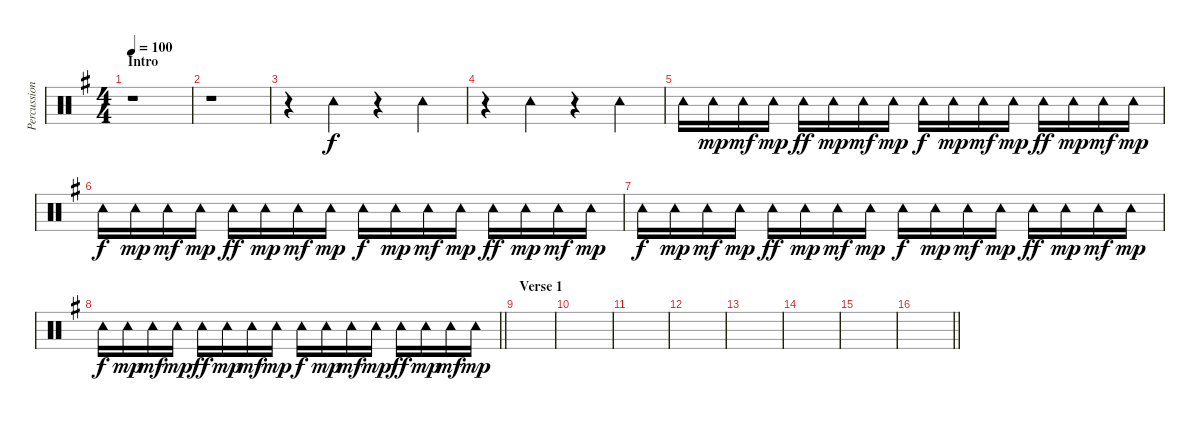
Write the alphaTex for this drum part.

\track ("Percussion" "Percussion") {instrument percussion}
\staff {score}
\articulation defaults
\ts (4 4)
\section ("" "Intro")
\tempo 100
\clef neutral
\ks g
r.1{dy f} |
r.1 |
r.4 "Tambourine (hit)".4 r.4 "Tambourine (hit)".4 |
r.4 "Tambourine (hit)".4 r.4 "Tambourine (hit)".4 |
"Tambourine (hit)".16 "Tambourine (hit)".16{dy mp} "Tambourine (hit)".16{dy mf} "Tambourine (hit)".16{dy mp} "Tambourine (hit)".16{dy ff} "Tambourine (hit)".16{dy mp} "Tambourine (hit)".16{dy mf} "Tambourine (hit)".16{dy mp} "Tambourine (hit)".16{dy f} "Tambourine (hit)".16{dy mp} "Tambourine (hit)".16{dy mf} "Tambourine (hit)".16{dy mp} "Tambourine (hit)".16{dy ff} "Tambourine (hit)".16{dy mp} "Tambourine (hit)".16{dy mf} "Tambourine (hit)".16{dy mp} |
"Tambourine (hit)".16{dy f} "Tambourine (hit)".16{dy mp} "Tambourine (hit)".16{dy mf} "Tambourine (hit)".16{dy mp} "Tambourine (hit)".16{dy ff} "Tambourine (hit)".16{dy mp} "Tambourine (hit)".16{dy mf} "Tambourine (hit)".16{dy mp} "Tambourine (hit)".16{dy f} "Tambourine (hit)".16{dy mp} "Tambourine (hit)".16{dy mf} "Tambourine (hit)".16{dy mp} "Tambourine (hit)".16{dy ff} "Tambourine (hit)".16{dy mp} "Tambourine (hit)".16{dy mf} "Tambourine (hit)".16{dy mp} |
"Tambourine (hit)".16{dy f} "Tambourine (hit)".16{dy mp} "Tambourine (hit)".16{dy mf} "Tambourine (hit)".16{dy mp} "Tambourine (hit)".16{dy ff} "Tambourine (hit)".16{dy mp} "Tambourine (hit)".16{dy mf} "Tambourine (hit)".16{dy mp} "Tambourine (hit)".16{dy f} "Tambourine (hit)".16{dy mp} "Tambourine (hit)".16{dy mf} "Tambourine (hit)".16{dy mp} "Tambourine (hit)".16{dy ff} "Tambourine (hit)".16{dy mp} "Tambourine (hit)".16{dy mf} "Tambourine (hit)".16{dy mp} |
\barLineRight lightlight "Tambourine (hit)".16{dy f} "Tambourine (hit)".16{dy mp} "Tambourine (hit)".16{dy mf} "Tambourine (hit)".16{dy mp} "Tambourine (hit)".16{dy ff} "Tambourine (hit)".16{dy mp} "Tambourine (hit)".16{dy mf} "Tambourine (hit)".16{dy mp} "Tambourine (hit)".16{dy f} "Tambourine (hit)".16{dy mp} "Tambourine (hit)".16{dy mf} "Tambourine (hit)".16{dy mp} "Tambourine (hit)".16{dy ff} "Tambourine (hit)".16{dy mp} "Tambourine (hit)".16{dy mf} "Tambourine (hit)".16{dy mp}
|
\section ("" "Verse 1")
|
|
|
|
|
|
|
\barLineRight lightlight
